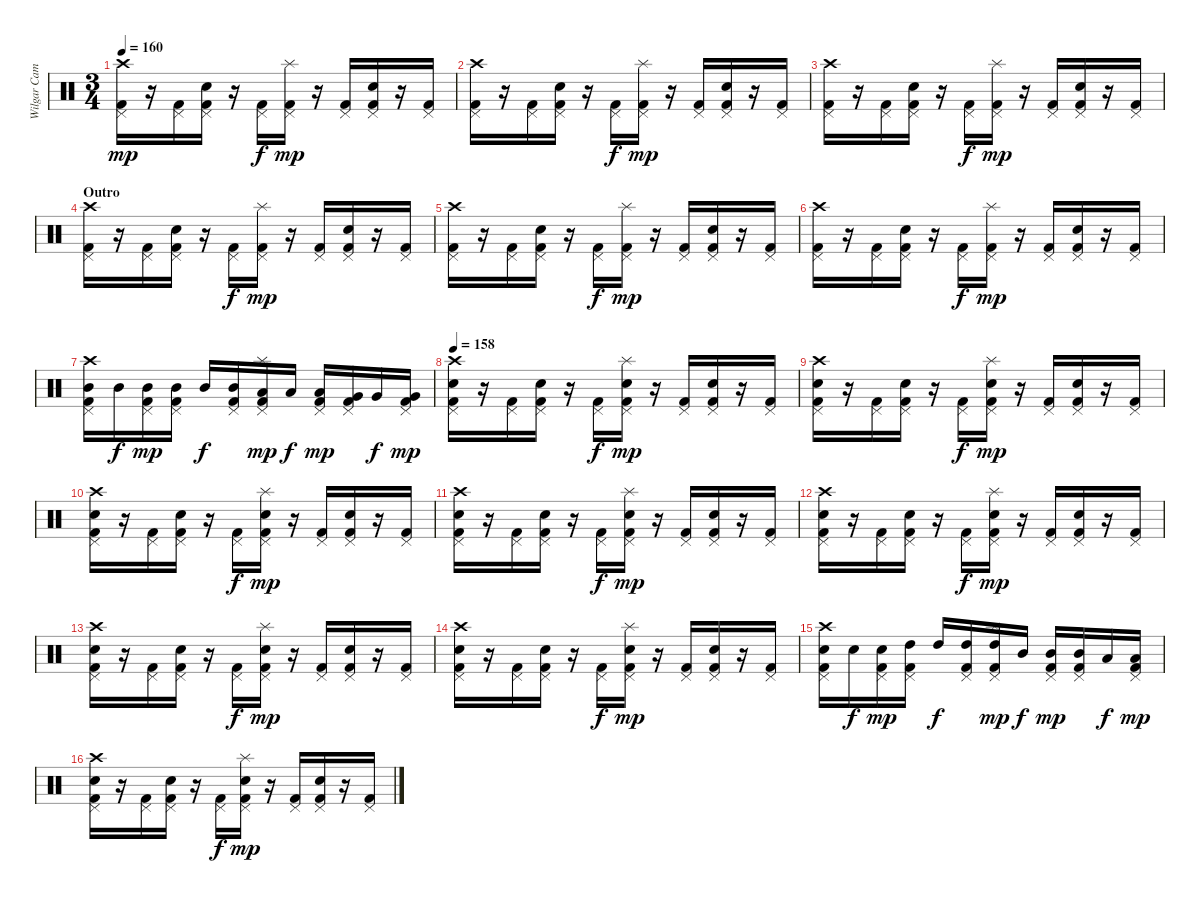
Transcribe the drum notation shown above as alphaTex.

\track ("Wilgar Campbell" "Wilgar Cam") {instrument percussion}
\staff {score}
\articulation defaults
\ts (3 4)
\tempo 160
\clef neutral
\ks c
("Crash high (hit)" "Pedal Hi-Hat (hit)" "Kick (hit) 2").16{dy mp} r.16 ("Pedal Hi-Hat (hit)" "Kick (hit) 2").16 ("Snare (hit) 2" "Pedal Hi-Hat (hit)" "Kick (hit) 2").16 r.16 ("Pedal Hi-Hat (hit)" "Kick (hit) 2").16{dy f} ("Splash (hit)" "Pedal Hi-Hat (hit)" "Kick (hit) 2").16{dy mp} r.16 ("Pedal Hi-Hat (hit)" "Kick (hit) 2").16 ("Snare (hit) 2" "Pedal Hi-Hat (hit)" "Kick (hit) 2").16 r.16 ("Pedal Hi-Hat (hit)" "Kick (hit) 2").16 |
("Crash high (hit)" "Pedal Hi-Hat (hit)" "Kick (hit) 2").16 r.16 ("Pedal Hi-Hat (hit)" "Kick (hit) 2").16 ("Snare (hit) 2" "Pedal Hi-Hat (hit)" "Kick (hit) 2").16 r.16 ("Pedal Hi-Hat (hit)" "Kick (hit) 2").16{dy f} ("Splash (hit)" "Pedal Hi-Hat (hit)" "Kick (hit) 2").16{dy mp} r.16 ("Pedal Hi-Hat (hit)" "Kick (hit) 2").16 ("Snare (hit) 2" "Pedal Hi-Hat (hit)" "Kick (hit) 2").16 r.16 ("Pedal Hi-Hat (hit)" "Kick (hit) 2").16 |
("Crash high (hit)" "Pedal Hi-Hat (hit)" "Kick (hit) 2").16 r.16 ("Pedal Hi-Hat (hit)" "Kick (hit) 2").16 ("Snare (hit) 2" "Pedal Hi-Hat (hit)" "Kick (hit) 2").16 r.16 ("Pedal Hi-Hat (hit)" "Kick (hit) 2").16{dy f} ("Splash (hit)" "Pedal Hi-Hat (hit)" "Kick (hit) 2").16{dy mp} r.16 ("Pedal Hi-Hat (hit)" "Kick (hit) 2").16 ("Snare (hit) 2" "Pedal Hi-Hat (hit)" "Kick (hit) 2").16 r.16 ("Pedal Hi-Hat (hit)" "Kick (hit) 2").16 |
\section ("" "Outro")
("Crash high (hit)" "Pedal Hi-Hat (hit)" "Kick (hit) 2").16 r.16 ("Pedal Hi-Hat (hit)" "Kick (hit) 2").16 ("Snare (hit) 2" "Pedal Hi-Hat (hit)" "Kick (hit) 2").16 r.16 ("Pedal Hi-Hat (hit)" "Kick (hit) 2").16{dy f} ("Splash (hit)" "Pedal Hi-Hat (hit)" "Kick (hit) 2").16{dy mp} r.16 ("Pedal Hi-Hat (hit)" "Kick (hit) 2").16 ("Snare (hit) 2" "Pedal Hi-Hat (hit)" "Kick (hit) 2").16 r.16 ("Pedal Hi-Hat (hit)" "Kick (hit) 2").16 |
("Crash high (hit)" "Pedal Hi-Hat (hit)" "Kick (hit) 2").16 r.16 ("Pedal Hi-Hat (hit)" "Kick (hit) 2").16 ("Snare (hit) 2" "Pedal Hi-Hat (hit)" "Kick (hit) 2").16 r.16 ("Pedal Hi-Hat (hit)" "Kick (hit) 2").16{dy f} ("Splash (hit)" "Pedal Hi-Hat (hit)" "Kick (hit) 2").16{dy mp} r.16 ("Pedal Hi-Hat (hit)" "Kick (hit) 2").16 ("Snare (hit) 2" "Pedal Hi-Hat (hit)" "Kick (hit) 2").16 r.16 ("Pedal Hi-Hat (hit)" "Kick (hit) 2").16 |
("Crash high (hit)" "Pedal Hi-Hat (hit)" "Kick (hit) 2").16 r.16 ("Pedal Hi-Hat (hit)" "Kick (hit) 2").16 ("Snare (hit) 2" "Pedal Hi-Hat (hit)" "Kick (hit) 2").16 r.16 ("Pedal Hi-Hat (hit)" "Kick (hit) 2").16{dy f} ("Splash (hit)" "Pedal Hi-Hat (hit)" "Kick (hit) 2").16{dy mp} r.16 ("Pedal Hi-Hat (hit)" "Kick (hit) 2").16 ("Snare (hit) 2" "Pedal Hi-Hat (hit)" "Kick (hit) 2").16 r.16 ("Pedal Hi-Hat (hit)" "Kick (hit) 2").16 |
("Crash high (hit)" "Mid Tom (hit)" "Pedal Hi-Hat (hit)" "Kick (hit) 2").16 "Mid Tom (hit)".16{dy f} ("Mid Tom (hit)" "Pedal Hi-Hat (hit)" "Kick (hit) 2").16{dy mp} ("Mid Tom (hit)" "Pedal Hi-Hat (hit)" "Kick (hit) 2").16 "Mid Tom (hit)".16{dy f} ("Mid Tom (hit)" "Pedal Hi-Hat (hit)" "Kick (hit) 2").16 ("Splash (hit)" "Low Tom (hit)" "Pedal Hi-Hat (hit)" "Kick (hit) 2").16{dy mp} "Low Tom (hit)".16{dy f} ("Low Tom (hit)" "Pedal Hi-Hat (hit)" "Kick (hit) 2").16{dy mp} ("Very Low Tom (hit)" "Pedal Hi-Hat (hit)" "Kick (hit) 2").16 "Very Low Tom (hit)".16{dy f} ("Very Low Tom (hit)" "Pedal Hi-Hat (hit)" "Kick (hit) 2").16{dy mp} |
\tempo 158
("Crash high (hit)" "Snare (hit) 2" "Pedal Hi-Hat (hit)" "Kick (hit) 2").16 r.16 ("Pedal Hi-Hat (hit)" "Kick (hit) 2").16 ("Snare (hit) 2" "Pedal Hi-Hat (hit)" "Kick (hit) 2").16 r.16 ("Pedal Hi-Hat (hit)" "Kick (hit) 2").16{dy f} ("Splash (hit)" "Snare (hit) 2" "Pedal Hi-Hat (hit)" "Kick (hit) 2").16{dy mp} r.16 ("Pedal Hi-Hat (hit)" "Kick (hit) 2").16 ("Snare (hit) 2" "Pedal Hi-Hat (hit)" "Kick (hit) 2").16 r.16 ("Pedal Hi-Hat (hit)" "Kick (hit) 2").16 |
("Crash high (hit)" "Snare (hit) 2" "Pedal Hi-Hat (hit)" "Kick (hit) 2").16 r.16 ("Pedal Hi-Hat (hit)" "Kick (hit) 2").16 ("Snare (hit) 2" "Pedal Hi-Hat (hit)" "Kick (hit) 2").16 r.16 ("Pedal Hi-Hat (hit)" "Kick (hit) 2").16{dy f} ("Splash (hit)" "Snare (hit) 2" "Pedal Hi-Hat (hit)" "Kick (hit) 2").16{dy mp} r.16 ("Pedal Hi-Hat (hit)" "Kick (hit) 2").16 ("Snare (hit) 2" "Pedal Hi-Hat (hit)" "Kick (hit) 2").16 r.16 ("Pedal Hi-Hat (hit)" "Kick (hit) 2").16 |
("Crash high (hit)" "Snare (hit) 2" "Pedal Hi-Hat (hit)" "Kick (hit) 2").16 r.16 ("Pedal Hi-Hat (hit)" "Kick (hit) 2").16 ("Snare (hit) 2" "Pedal Hi-Hat (hit)" "Kick (hit) 2").16 r.16 ("Pedal Hi-Hat (hit)" "Kick (hit) 2").16{dy f} ("Splash (hit)" "Snare (hit) 2" "Pedal Hi-Hat (hit)" "Kick (hit) 2").16{dy mp} r.16 ("Pedal Hi-Hat (hit)" "Kick (hit) 2").16 ("Snare (hit) 2" "Pedal Hi-Hat (hit)" "Kick (hit) 2").16 r.16 ("Pedal Hi-Hat (hit)" "Kick (hit) 2").16 |
("Crash high (hit)" "Snare (hit) 2" "Pedal Hi-Hat (hit)" "Kick (hit) 2").16 r.16 ("Pedal Hi-Hat (hit)" "Kick (hit) 2").16 ("Snare (hit) 2" "Pedal Hi-Hat (hit)" "Kick (hit) 2").16 r.16 ("Pedal Hi-Hat (hit)" "Kick (hit) 2").16{dy f} ("Splash (hit)" "Snare (hit) 2" "Pedal Hi-Hat (hit)" "Kick (hit) 2").16{dy mp} r.16 ("Pedal Hi-Hat (hit)" "Kick (hit) 2").16 ("Snare (hit) 2" "Pedal Hi-Hat (hit)" "Kick (hit) 2").16 r.16 ("Pedal Hi-Hat (hit)" "Kick (hit) 2").16 |
("Crash high (hit)" "Snare (hit) 2" "Pedal Hi-Hat (hit)" "Kick (hit) 2").16 r.16 ("Pedal Hi-Hat (hit)" "Kick (hit) 2").16 ("Snare (hit) 2" "Pedal Hi-Hat (hit)" "Kick (hit) 2").16 r.16 ("Pedal Hi-Hat (hit)" "Kick (hit) 2").16{dy f} ("Splash (hit)" "Snare (hit) 2" "Pedal Hi-Hat (hit)" "Kick (hit) 2").16{dy mp} r.16 ("Pedal Hi-Hat (hit)" "Kick (hit) 2").16 ("Snare (hit) 2" "Pedal Hi-Hat (hit)" "Kick (hit) 2").16 r.16 ("Pedal Hi-Hat (hit)" "Kick (hit) 2").16 |
("Crash high (hit)" "Snare (hit) 2" "Pedal Hi-Hat (hit)" "Kick (hit) 2").16 r.16 ("Pedal Hi-Hat (hit)" "Kick (hit) 2").16 ("Snare (hit) 2" "Pedal Hi-Hat (hit)" "Kick (hit) 2").16 r.16 ("Pedal Hi-Hat (hit)" "Kick (hit) 2").16{dy f} ("Splash (hit)" "Snare (hit) 2" "Pedal Hi-Hat (hit)" "Kick (hit) 2").16{dy mp} r.16 ("Pedal Hi-Hat (hit)" "Kick (hit) 2").16 ("Snare (hit) 2" "Pedal Hi-Hat (hit)" "Kick (hit) 2").16 r.16 ("Pedal Hi-Hat (hit)" "Kick (hit) 2").16 |
("Crash high (hit)" "Snare (hit) 2" "Pedal Hi-Hat (hit)" "Kick (hit) 2").16 r.16 ("Pedal Hi-Hat (hit)" "Kick (hit) 2").16 ("Snare (hit) 2" "Pedal Hi-Hat (hit)" "Kick (hit) 2").16 r.16 ("Pedal Hi-Hat (hit)" "Kick (hit) 2").16{dy f} ("Splash (hit)" "Snare (hit) 2" "Pedal Hi-Hat (hit)" "Kick (hit) 2").16{dy mp} r.16 ("Pedal Hi-Hat (hit)" "Kick (hit) 2").16 ("Snare (hit) 2" "Pedal Hi-Hat (hit)" "Kick (hit) 2").16 r.16 ("Pedal Hi-Hat (hit)" "Kick (hit) 2").16 |
("Crash high (hit)" "Snare (hit) 2" "Pedal Hi-Hat (hit)" "Kick (hit) 2").16 "Snare (hit) 2".16{dy f} ("Snare (hit) 2" "Pedal Hi-Hat (hit)" "Kick (hit) 2").16{dy mp} ("High Tom (hit)" "Pedal Hi-Hat (hit)" "Kick (hit) 2").16 "High Tom (hit)".16{dy f} ("High Tom (hit)" "Pedal Hi-Hat (hit)" "Kick (hit) 2").16 ("Splash (hit)" "High Tom (hit)" "Pedal Hi-Hat (hit)" "Kick (hit) 2").16{dy mp} "Mid Tom (hit)".16{dy f} ("Mid Tom (hit)" "Pedal Hi-Hat (hit)" "Kick (hit) 2").16{dy mp} ("Mid Tom (hit)" "Pedal Hi-Hat (hit)" "Kick (hit) 2").16 "Low Tom (hit)".16{dy f} ("Low Tom (hit)" "Pedal Hi-Hat (hit)" "Kick (hit) 2").16{dy mp} |
("Crash high (hit)" "Snare (hit) 2" "Pedal Hi-Hat (hit)" "Kick (hit) 2").16 r.16 ("Pedal Hi-Hat (hit)" "Kick (hit) 2").16 ("Snare (hit) 2" "Pedal Hi-Hat (hit)" "Kick (hit) 2").16 r.16 ("Pedal Hi-Hat (hit)" "Kick (hit) 2").16{dy f} ("Splash (hit)" "Snare (hit) 2" "Pedal Hi-Hat (hit)" "Kick (hit) 2").16{dy mp} r.16 ("Pedal Hi-Hat (hit)" "Kick (hit) 2").16 ("Snare (hit) 2" "Pedal Hi-Hat (hit)" "Kick (hit) 2").16 r.16 ("Pedal Hi-Hat (hit)" "Kick (hit) 2").16
